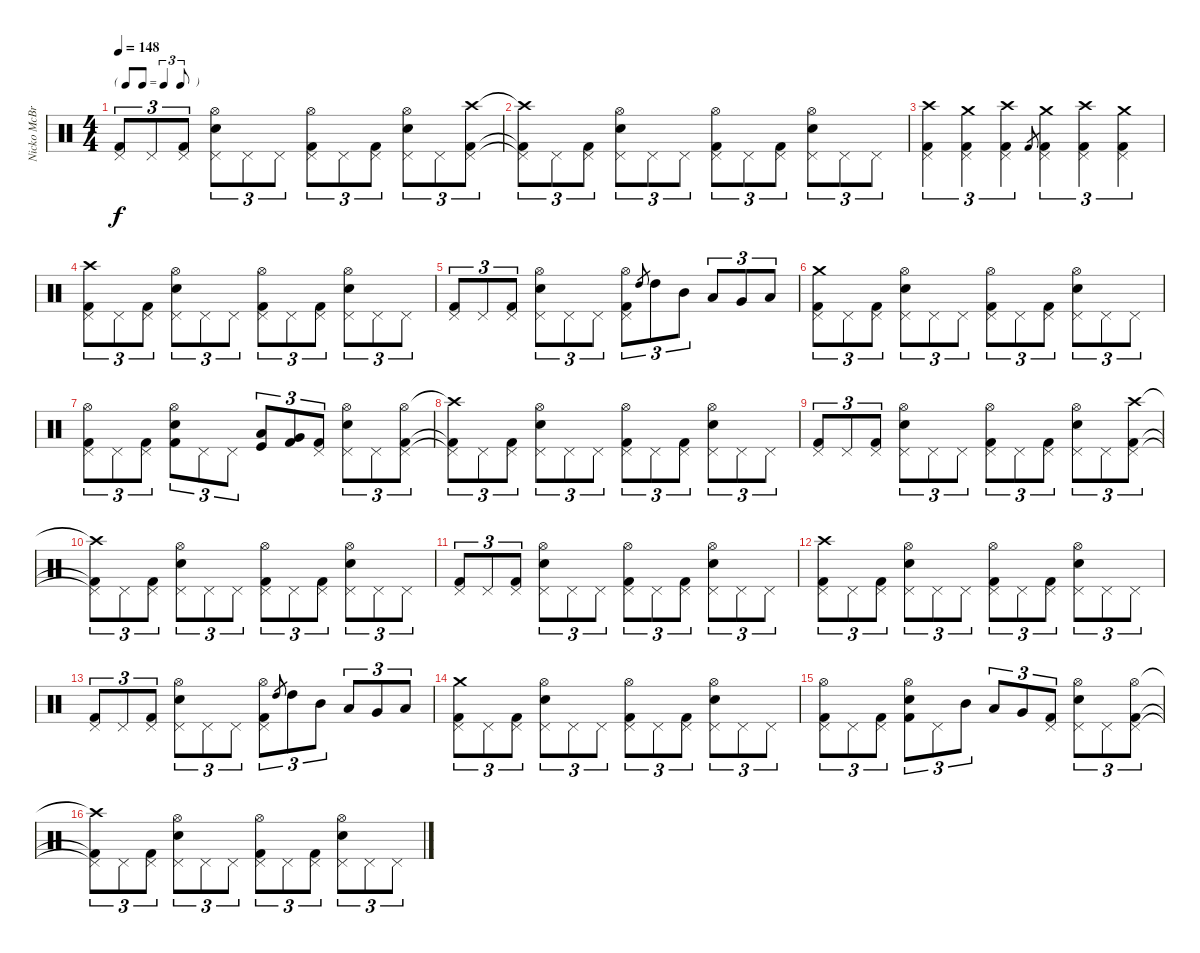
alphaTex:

\track ("Nicko McBrain" "Nicko McBr") {instrument percussion}
\staff {score}
\articulation defaults
\ts (4 4)
\tf triplet8th
\tempo 148
\clef neutral
\ks c
("Kick (hit) 2" "Pedal Hi-Hat (hit)").8{tu (3 2) dy f} "Pedal Hi-Hat (hit)".8{tu (3 2)} ("Kick (hit) 2" "Pedal Hi-Hat (hit)").8{tu (3 2)} ("Snare (hit) 2" "Pedal Hi-Hat (hit)" "Hi-Hat (open)").8{tu (3 2)} "Pedal Hi-Hat (hit)".8{tu (3 2)} "Pedal Hi-Hat (hit)".8{tu (3 2)} ("Kick (hit) 2" "Pedal Hi-Hat (hit)" "Hi-Hat (open)").8{tu (3 2)} "Pedal Hi-Hat (hit)".8{tu (3 2)} ("Kick (hit) 2" "Pedal Hi-Hat (hit)").8{tu (3 2)} ("Snare (hit) 2" "Pedal Hi-Hat (hit)" "Hi-Hat (open)").8{tu (3 2)} "Pedal Hi-Hat (hit)".8{tu (3 2)} ("Kick (hit) 2" "Pedal Hi-Hat (hit)" "Crash high (hit)").8{tu (3 2)} |
("Kick (hit) 2"{t} "Pedal Hi-Hat (hit)"{t} "Crash high (hit)"{t}).8{tu (3 2)} "Pedal Hi-Hat (hit)".8{tu (3 2)} ("Kick (hit) 2" "Pedal Hi-Hat (hit)").8{tu (3 2)} ("Snare (hit) 2" "Pedal Hi-Hat (hit)" "Hi-Hat (open)").8{tu (3 2)} "Pedal Hi-Hat (hit)".8{tu (3 2)} "Pedal Hi-Hat (hit)".8{tu (3 2)} ("Kick (hit) 2" "Pedal Hi-Hat (hit)" "Hi-Hat (open)").8{tu (3 2)} "Pedal Hi-Hat (hit)".8{tu (3 2)} ("Kick (hit) 2" "Pedal Hi-Hat (hit)").8{tu (3 2)} ("Snare (hit) 2" "Pedal Hi-Hat (hit)" "Hi-Hat (open)").8{tu (3 2)} "Pedal Hi-Hat (hit)".8{tu (3 2)} "Pedal Hi-Hat (hit)".8{tu (3 2)} |
("Kick (hit) 2" "Pedal Hi-Hat (hit)" "Crash high (hit)").4{tu (3 2)} ("Kick (hit) 2" "Pedal Hi-Hat (hit)" "Crash medium (hit)").4{tu (3 2)} ("Kick (hit) 2" "Pedal Hi-Hat (hit)" "Crash high (hit)").4{tu (3 2)} "Kick (hit) 2".8{gr} ("Kick (hit) 2" "Pedal Hi-Hat (hit)" "Crash medium (hit)").4{tu (3 2)} ("Kick (hit) 2" "Pedal Hi-Hat (hit)" "Crash high (hit)").4{tu (3 2)} ("Kick (hit) 2" "Pedal Hi-Hat (hit)" "Crash medium (hit)").4{tu (3 2)} |
("Kick (hit) 2" "Pedal Hi-Hat (hit)" "Crash high (hit)").8{tu (3 2)} "Pedal Hi-Hat (hit)".8{tu (3 2)} ("Kick (hit) 2" "Pedal Hi-Hat (hit)").8{tu (3 2)} ("Snare (hit) 2" "Pedal Hi-Hat (hit)" "Hi-Hat (open)").8{tu (3 2)} "Pedal Hi-Hat (hit)".8{tu (3 2)} "Pedal Hi-Hat (hit)".8{tu (3 2)} ("Kick (hit) 2" "Pedal Hi-Hat (hit)" "Hi-Hat (open)").8{tu (3 2)} "Pedal Hi-Hat (hit)".8{tu (3 2)} ("Kick (hit) 2" "Pedal Hi-Hat (hit)").8{tu (3 2)} ("Snare (hit) 2" "Pedal Hi-Hat (hit)" "Hi-Hat (open)").8{tu (3 2)} "Pedal Hi-Hat (hit)".8{tu (3 2)} "Pedal Hi-Hat (hit)".8{tu (3 2)} |
("Kick (hit) 2" "Pedal Hi-Hat (hit)").8{tu (3 2)} "Pedal Hi-Hat (hit)".8{tu (3 2)} ("Kick (hit) 2" "Pedal Hi-Hat (hit)").8{tu (3 2)} ("Snare (hit) 2" "Pedal Hi-Hat (hit)" "Hi-Hat (open)").8{tu (3 2)} "Pedal Hi-Hat (hit)".8{tu (3 2)} "Pedal Hi-Hat (hit)".8{tu (3 2)} ("Kick (hit) 2" "Pedal Hi-Hat (hit)" "Hi-Hat (open)").8{tu (3 2)} "High Tom (hit)".8{gr} "High Tom (hit)".8{tu (3 2)} "Mid Tom (hit)".8{tu (3 2)} "Low Tom (hit)".8{tu (3 2)} "Very Low Tom (hit)".8{tu (3 2)} "Low Floor Tom (hit)".8{tu (3 2)} |
("Kick (hit) 2" "Pedal Hi-Hat (hit)" "Crash medium (hit)").8{tu (3 2)} "Pedal Hi-Hat (hit)".8{tu (3 2)} ("Kick (hit) 2" "Pedal Hi-Hat (hit)").8{tu (3 2)} ("Snare (hit) 2" "Pedal Hi-Hat (hit)" "Hi-Hat (open)").8{tu (3 2)} "Pedal Hi-Hat (hit)".8{tu (3 2)} "Pedal Hi-Hat (hit)".8{tu (3 2)} ("Kick (hit) 2" "Pedal Hi-Hat (hit)" "Hi-Hat (open)").8{tu (3 2)} "Pedal Hi-Hat (hit)".8{tu (3 2)} ("Kick (hit) 2" "Pedal Hi-Hat (hit)").8{tu (3 2)} ("Snare (hit) 2" "Pedal Hi-Hat (hit)" "Hi-Hat (open)").8{tu (3 2)} "Pedal Hi-Hat (hit)".8{tu (3 2)} "Pedal Hi-Hat (hit)".8{tu (3 2)} |
("Kick (hit) 2" "Pedal Hi-Hat (hit)" "Hi-Hat (open)").8{tu (3 2)} "Pedal Hi-Hat (hit)".8{tu (3 2)} ("Kick (hit) 2" "Pedal Hi-Hat (hit)").8{tu (3 2)} ("Snare (hit) 2" "Kick (hit) 2" "Hi-Hat (open)").8{tu (3 2)} "Pedal Hi-Hat (hit)".8{tu (3 2)} "Pedal Hi-Hat (hit)".8{tu (3 2)} ("Low Tom (hit)" "Kick (hit)").8{tu (3 2)} ("Very Low Tom (hit)" "Kick (hit) 2").8{tu (3 2)} ("Kick (hit) 2" "Pedal Hi-Hat (hit)").8{tu (3 2)} ("Snare (hit) 2" "Pedal Hi-Hat (hit)" "Hi-Hat (open)").8{tu (3 2)} "Pedal Hi-Hat (hit)".8{tu (3 2)} ("Kick (hit) 2" "Pedal Hi-Hat (hit)" "Hi-Hat (open)").8{tu (3 2)} |
("Kick (hit) 2"{t} "Pedal Hi-Hat (hit)"{t} "Crash high (hit)"{t}).8{tu (3 2)} "Pedal Hi-Hat (hit)".8{tu (3 2)} ("Kick (hit) 2" "Pedal Hi-Hat (hit)").8{tu (3 2)} ("Snare (hit) 2" "Pedal Hi-Hat (hit)" "Hi-Hat (open)").8{tu (3 2)} "Pedal Hi-Hat (hit)".8{tu (3 2)} "Pedal Hi-Hat (hit)".8{tu (3 2)} ("Kick (hit) 2" "Pedal Hi-Hat (hit)" "Hi-Hat (open)").8{tu (3 2)} "Pedal Hi-Hat (hit)".8{tu (3 2)} ("Kick (hit) 2" "Pedal Hi-Hat (hit)").8{tu (3 2)} ("Snare (hit) 2" "Pedal Hi-Hat (hit)" "Hi-Hat (open)").8{tu (3 2)} "Pedal Hi-Hat (hit)".8{tu (3 2)} "Pedal Hi-Hat (hit)".8{tu (3 2)} |
("Kick (hit) 2" "Pedal Hi-Hat (hit)").8{tu (3 2)} "Pedal Hi-Hat (hit)".8{tu (3 2)} ("Kick (hit) 2" "Pedal Hi-Hat (hit)").8{tu (3 2)} ("Snare (hit) 2" "Pedal Hi-Hat (hit)" "Hi-Hat (open)").8{tu (3 2)} "Pedal Hi-Hat (hit)".8{tu (3 2)} "Pedal Hi-Hat (hit)".8{tu (3 2)} ("Kick (hit) 2" "Pedal Hi-Hat (hit)" "Hi-Hat (open)").8{tu (3 2)} "Pedal Hi-Hat (hit)".8{tu (3 2)} ("Kick (hit) 2" "Pedal Hi-Hat (hit)").8{tu (3 2)} ("Snare (hit) 2" "Pedal Hi-Hat (hit)" "Hi-Hat (open)").8{tu (3 2)} "Pedal Hi-Hat (hit)".8{tu (3 2)} ("Kick (hit) 2" "Pedal Hi-Hat (hit)" "Crash high (hit)").8{tu (3 2)} |
("Kick (hit) 2"{t} "Pedal Hi-Hat (hit)"{t} "Crash high (hit)"{t}).8{tu (3 2)} "Pedal Hi-Hat (hit)".8{tu (3 2)} ("Kick (hit) 2" "Pedal Hi-Hat (hit)").8{tu (3 2)} ("Snare (hit) 2" "Pedal Hi-Hat (hit)" "Hi-Hat (open)").8{tu (3 2)} "Pedal Hi-Hat (hit)".8{tu (3 2)} "Pedal Hi-Hat (hit)".8{tu (3 2)} ("Kick (hit) 2" "Pedal Hi-Hat (hit)" "Hi-Hat (open)").8{tu (3 2)} "Pedal Hi-Hat (hit)".8{tu (3 2)} ("Kick (hit) 2" "Pedal Hi-Hat (hit)").8{tu (3 2)} ("Snare (hit) 2" "Pedal Hi-Hat (hit)" "Hi-Hat (open)").8{tu (3 2)} "Pedal Hi-Hat (hit)".8{tu (3 2)} "Pedal Hi-Hat (hit)".8{tu (3 2)} |
("Kick (hit) 2" "Pedal Hi-Hat (hit)").8{tu (3 2)} "Pedal Hi-Hat (hit)".8{tu (3 2)} ("Kick (hit) 2" "Pedal Hi-Hat (hit)").8{tu (3 2)} ("Snare (hit) 2" "Pedal Hi-Hat (hit)" "Hi-Hat (open)").8{tu (3 2)} "Pedal Hi-Hat (hit)".8{tu (3 2)} "Pedal Hi-Hat (hit)".8{tu (3 2)} ("Kick (hit) 2" "Pedal Hi-Hat (hit)" "Hi-Hat (open)").8{tu (3 2)} "Pedal Hi-Hat (hit)".8{tu (3 2)} ("Kick (hit) 2" "Pedal Hi-Hat (hit)").8{tu (3 2)} ("Snare (hit) 2" "Pedal Hi-Hat (hit)" "Hi-Hat (open)").8{tu (3 2)} "Pedal Hi-Hat (hit)".8{tu (3 2)} "Pedal Hi-Hat (hit)".8{tu (3 2)} |
("Kick (hit) 2" "Pedal Hi-Hat (hit)" "Crash high (hit)").8{tu (3 2)} "Pedal Hi-Hat (hit)".8{tu (3 2)} ("Kick (hit) 2" "Pedal Hi-Hat (hit)").8{tu (3 2)} ("Snare (hit) 2" "Pedal Hi-Hat (hit)" "Hi-Hat (open)").8{tu (3 2)} "Pedal Hi-Hat (hit)".8{tu (3 2)} "Pedal Hi-Hat (hit)".8{tu (3 2)} ("Kick (hit) 2" "Pedal Hi-Hat (hit)" "Hi-Hat (open)").8{tu (3 2)} "Pedal Hi-Hat (hit)".8{tu (3 2)} ("Kick (hit) 2" "Pedal Hi-Hat (hit)").8{tu (3 2)} ("Snare (hit) 2" "Pedal Hi-Hat (hit)" "Hi-Hat (open)").8{tu (3 2)} "Pedal Hi-Hat (hit)".8{tu (3 2)} "Pedal Hi-Hat (hit)".8{tu (3 2)} |
("Kick (hit) 2" "Pedal Hi-Hat (hit)").8{tu (3 2)} "Pedal Hi-Hat (hit)".8{tu (3 2)} ("Kick (hit) 2" "Pedal Hi-Hat (hit)").8{tu (3 2)} ("Snare (hit) 2" "Pedal Hi-Hat (hit)" "Hi-Hat (open)").8{tu (3 2)} "Pedal Hi-Hat (hit)".8{tu (3 2)} "Pedal Hi-Hat (hit)".8{tu (3 2)} ("Kick (hit) 2" "Pedal Hi-Hat (hit)" "Hi-Hat (open)").8{tu (3 2)} "High Tom (hit)".8{gr} "High Tom (hit)".8{tu (3 2)} "Mid Tom (hit)".8{tu (3 2)} "Low Tom (hit)".8{tu (3 2)} "Very Low Tom (hit)".8{tu (3 2)} "Low Floor Tom (hit)".8{tu (3 2)} |
("Kick (hit) 2" "Pedal Hi-Hat (hit)" "Crash medium (hit)").8{tu (3 2)} "Pedal Hi-Hat (hit)".8{tu (3 2)} ("Kick (hit) 2" "Pedal Hi-Hat (hit)").8{tu (3 2)} ("Snare (hit) 2" "Pedal Hi-Hat (hit)" "Hi-Hat (open)").8{tu (3 2)} "Pedal Hi-Hat (hit)".8{tu (3 2)} "Pedal Hi-Hat (hit)".8{tu (3 2)} ("Kick (hit) 2" "Pedal Hi-Hat (hit)" "Hi-Hat (open)").8{tu (3 2)} "Pedal Hi-Hat (hit)".8{tu (3 2)} ("Kick (hit) 2" "Pedal Hi-Hat (hit)").8{tu (3 2)} ("Snare (hit) 2" "Pedal Hi-Hat (hit)" "Hi-Hat (open)").8{tu (3 2)} "Pedal Hi-Hat (hit)".8{tu (3 2)} "Pedal Hi-Hat (hit)".8{tu (3 2)} |
("Kick (hit) 2" "Pedal Hi-Hat (hit)" "Hi-Hat (open)").8{tu (3 2)} "Pedal Hi-Hat (hit)".8{tu (3 2)} ("Kick (hit) 2" "Pedal Hi-Hat (hit)").8{tu (3 2)} ("Snare (hit) 2" "Kick (hit) 2" "Hi-Hat (open)").8{tu (3 2)} "Pedal Hi-Hat (hit)".8{tu (3 2)} "Mid Tom (hit)".8{tu (3 2)} "Low Tom (hit)".8{tu (3 2)} "Very Low Tom (hit)".8{tu (3 2)} ("Kick (hit) 2" "Pedal Hi-Hat (hit)").8{tu (3 2)} ("Snare (hit) 2" "Pedal Hi-Hat (hit)" "Hi-Hat (open)").8{tu (3 2)} "Pedal Hi-Hat (hit)".8{tu (3 2)} ("Kick (hit) 2" "Pedal Hi-Hat (hit)" "Hi-Hat (open)").8{tu (3 2)} |
("Kick (hit) 2"{t} "Pedal Hi-Hat (hit)"{t} "Crash high (hit)"{t}).8{tu (3 2)} "Pedal Hi-Hat (hit)".8{tu (3 2)} ("Kick (hit) 2" "Pedal Hi-Hat (hit)").8{tu (3 2)} ("Snare (hit) 2" "Pedal Hi-Hat (hit)" "Hi-Hat (open)").8{tu (3 2)} "Pedal Hi-Hat (hit)".8{tu (3 2)} "Pedal Hi-Hat (hit)".8{tu (3 2)} ("Kick (hit) 2" "Pedal Hi-Hat (hit)" "Hi-Hat (open)").8{tu (3 2)} "Pedal Hi-Hat (hit)".8{tu (3 2)} ("Kick (hit) 2" "Pedal Hi-Hat (hit)").8{tu (3 2)} ("Snare (hit) 2" "Pedal Hi-Hat (hit)" "Hi-Hat (open)").8{tu (3 2)} "Pedal Hi-Hat (hit)".8{tu (3 2)} "Pedal Hi-Hat (hit)".8{tu (3 2)}
